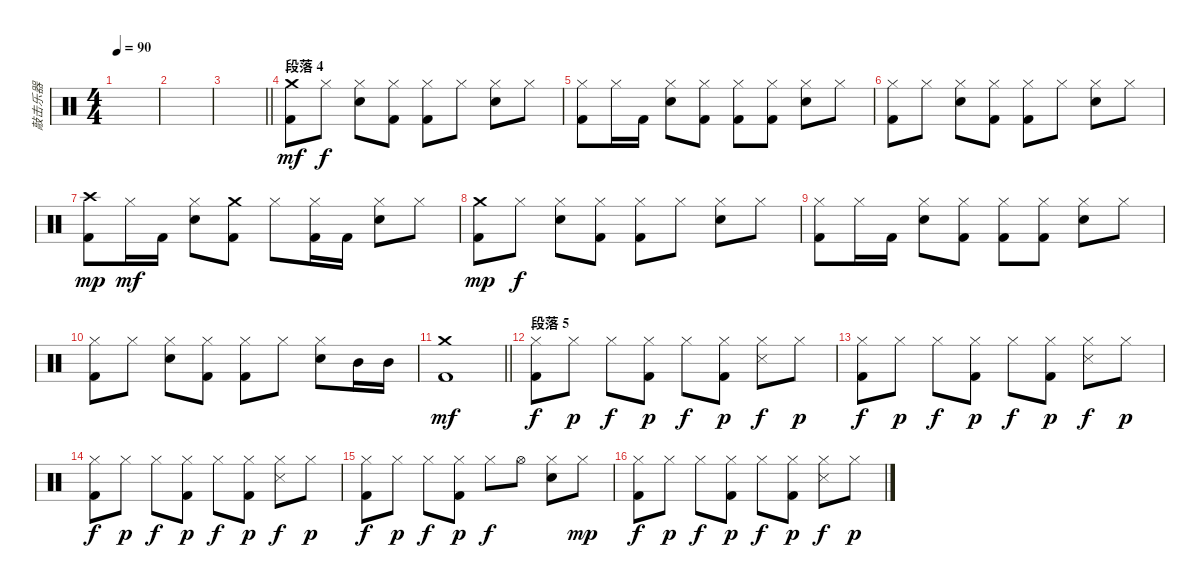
\track ("敲击乐器" "敲击乐器") {instrument percussion}
\staff {score}
\articulation defaults
\ts (4 4)
\tempo 90
\clef neutral
\ks c
|
|
\barLineRight lightlight
|
\section ("" "段落 4")
("Crash medium (hit)" "Kick (hit) 2").8{dy mf} "Hi-Hat (closed)".8{dy f} ("Hi-Hat (closed)" "Snare (hit) 2").8 ("Hi-Hat (closed)" "Kick (hit) 2").8 ("Hi-Hat (closed)" "Kick (hit) 2").8 "Hi-Hat (closed)".8 ("Hi-Hat (closed)" "Snare (hit) 2").8 "Hi-Hat (closed)".8 |
("Hi-Hat (closed)" "Kick (hit) 2").8 "Hi-Hat (closed)".16 "Kick (hit) 2".16 ("Hi-Hat (closed)" "Snare (hit) 2").8 ("Hi-Hat (closed)" "Kick (hit) 2").8 ("Hi-Hat (closed)" "Kick (hit) 2").8 ("Hi-Hat (closed)" "Kick (hit) 2").8 ("Hi-Hat (closed)" "Snare (hit) 2").8 "Hi-Hat (closed)".8 |
("Hi-Hat (closed)" "Kick (hit) 2").8 "Hi-Hat (closed)".8 ("Hi-Hat (closed)" "Snare (hit) 2").8 ("Hi-Hat (closed)" "Kick (hit) 2").8 ("Hi-Hat (closed)" "Kick (hit) 2").8 "Hi-Hat (closed)".8 ("Hi-Hat (closed)" "Snare (hit) 2").8 "Hi-Hat (closed)".8 |
("Crash high (hit)" "Kick (hit) 2").8{dy mp} "Hi-Hat (closed)".16{dy mf} "Kick (hit) 2".16 ("Hi-Hat (closed)" "Snare (hit) 2").8 ("Crash medium (hit)" "Kick (hit) 2").8 "Hi-Hat (closed)".8 ("Hi-Hat (closed)" "Kick (hit) 2").16 "Kick (hit) 2".16 ("Hi-Hat (closed)" "Snare (hit) 2").8 "Hi-Hat (closed)".8 |
("Crash medium (hit)" "Kick (hit) 2").8{dy mp} "Hi-Hat (closed)".8{dy f} ("Hi-Hat (closed)" "Snare (hit) 2").8 ("Hi-Hat (closed)" "Kick (hit) 2").8 ("Hi-Hat (closed)" "Kick (hit) 2").8 "Hi-Hat (closed)".8 ("Hi-Hat (closed)" "Snare (hit) 2").8 "Hi-Hat (closed)".8 |
("Hi-Hat (closed)" "Kick (hit) 2").8 "Hi-Hat (closed)".16 "Kick (hit) 2".16 ("Hi-Hat (closed)" "Snare (hit) 2").8 ("Hi-Hat (closed)" "Kick (hit) 2").8 ("Hi-Hat (closed)" "Kick (hit) 2").8 ("Hi-Hat (closed)" "Kick (hit) 2").8 ("Hi-Hat (closed)" "Snare (hit) 2").8 "Hi-Hat (closed)".8 |
("Hi-Hat (closed)" "Kick (hit) 2").8 "Hi-Hat (closed)".8 ("Hi-Hat (closed)" "Snare (hit) 2").8 ("Hi-Hat (closed)" "Kick (hit) 2").8 ("Hi-Hat (closed)" "Kick (hit) 2").8 "Hi-Hat (closed)".8 ("Hi-Hat (closed)" "Snare (hit) 2").8 "Mid Tom (hit)".16 "Mid Tom (hit)".16 |
\barLineRight lightlight
("Crash medium (hit)" "Kick (hit) 2").1{dy mf} |
\section ("" "段落 5")
("Hi-Hat (closed)" "Kick (hit) 2").8{dy f} "Hi-Hat (closed)".8{dy p} "Hi-Hat (closed)".8{dy f} ("Hi-Hat (closed)" "Kick (hit) 2").8{dy p} "Hi-Hat (closed)".8{dy f} ("Hi-Hat (closed)" "Kick (hit) 2").8{dy p} ("Hi-Hat (closed)" "Metronome (hit)").8{dy f} "Hi-Hat (closed)".8{dy p} |
("Hi-Hat (closed)" "Kick (hit) 2").8{dy f} "Hi-Hat (closed)".8{dy p} "Hi-Hat (closed)".8{dy f} ("Hi-Hat (closed)" "Kick (hit) 2").8{dy p} "Hi-Hat (closed)".8{dy f} ("Hi-Hat (closed)" "Kick (hit) 2").8{dy p} ("Hi-Hat (closed)" "Metronome (hit)").8{dy f} "Hi-Hat (closed)".8{dy p} |
("Hi-Hat (closed)" "Kick (hit) 2").8{dy f} "Hi-Hat (closed)".8{dy p} "Hi-Hat (closed)".8{dy f} ("Hi-Hat (closed)" "Kick (hit) 2").8{dy p} "Hi-Hat (closed)".8{dy f} ("Hi-Hat (closed)" "Kick (hit) 2").8{dy p} ("Hi-Hat (closed)" "Metronome (hit)").8{dy f} "Hi-Hat (closed)".8{dy p} |
("Hi-Hat (closed)" "Kick (hit) 2").8{dy f} "Hi-Hat (closed)".8{dy p} "Hi-Hat (closed)".8{dy f} ("Hi-Hat (closed)" "Kick (hit) 2").8{dy p} "Hi-Hat (closed)".8{dy f} "Hi-Hat (open)".8 ("Hi-Hat (closed)" "Snare (hit) 2").8 "Hi-Hat (closed)".8{dy mp} |
("Hi-Hat (closed)" "Kick (hit) 2").8{dy f} "Hi-Hat (closed)".8{dy p} "Hi-Hat (closed)".8{dy f} ("Hi-Hat (closed)" "Kick (hit) 2").8{dy p} "Hi-Hat (closed)".8{dy f} ("Hi-Hat (closed)" "Kick (hit) 2").8{dy p} ("Hi-Hat (closed)" "Metronome (hit)").8{dy f} "Hi-Hat (closed)".8{dy p}
